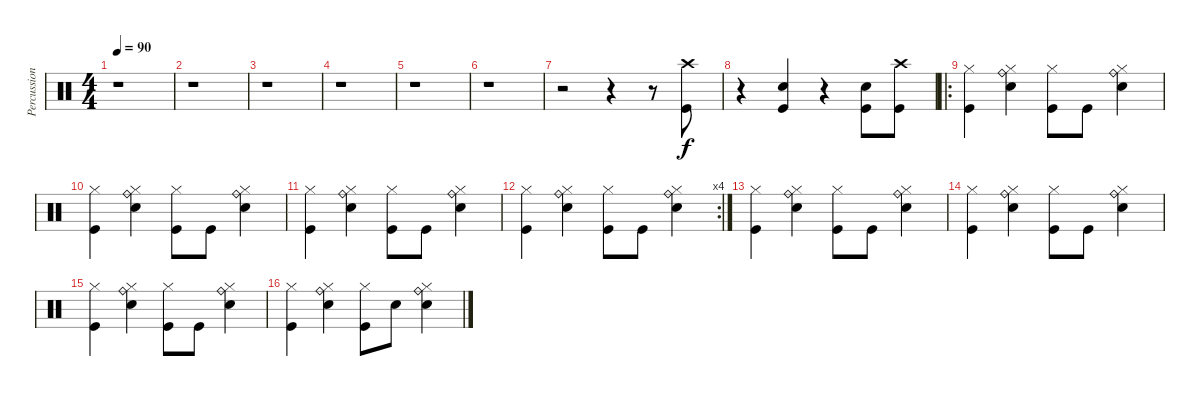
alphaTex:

\track ("Percussion" "Percussion") {instrument percussion}
\staff {score}
\articulation defaults
\ts (4 4)
\tempo 90
\clef neutral
\ks c
r.1{dy f} |
r.1 |
r.1 |
r.1 |
r.1 |
r.1 |
r.2 r.4 r.8 ("Crash high (hit)" "Kick (hit)").8 |
r.4 ("Snare (hit) 2" "Kick (hit)").4 r.4 ("Snare (hit) 2" "Kick (hit)").8 ("Crash high (hit)" "Kick (hit)").8 |
\ro
("Hi-Hat (closed)" "Kick (hit)").4 ("Hi-Hat (closed)" "Ride (bell)" "Snare (hit) 2").4 ("Hi-Hat (closed)" "Kick (hit)").8 "Kick (hit)".8 ("Hi-Hat (closed)" "Ride (bell)" "Snare (hit) 2").4 |
("Hi-Hat (closed)" "Kick (hit)").4 ("Hi-Hat (closed)" "Ride (bell)" "Snare (hit) 2").4 ("Hi-Hat (closed)" "Kick (hit)").8 "Kick (hit)".8 ("Hi-Hat (closed)" "Ride (bell)" "Snare (hit) 2").4 |
("Hi-Hat (closed)" "Kick (hit)").4 ("Hi-Hat (closed)" "Ride (bell)" "Snare (hit) 2").4 ("Hi-Hat (closed)" "Kick (hit)").8 "Kick (hit)".8 ("Hi-Hat (closed)" "Ride (bell)" "Snare (hit) 2").4 |
\rc 4
("Hi-Hat (closed)" "Kick (hit)").4 ("Hi-Hat (closed)" "Ride (bell)" "Snare (hit) 2").4 ("Hi-Hat (closed)" "Kick (hit)").8 "Kick (hit)".8 ("Hi-Hat (closed)" "Ride (bell)" "Snare (hit) 2").4 |
("Hi-Hat (closed)" "Kick (hit)").4 ("Hi-Hat (closed)" "Ride (bell)" "Snare (hit) 2").4 ("Hi-Hat (closed)" "Kick (hit)").8 "Kick (hit)".8 ("Hi-Hat (closed)" "Ride (bell)" "Snare (hit) 2").4 |
("Hi-Hat (closed)" "Kick (hit)").4 ("Hi-Hat (closed)" "Ride (bell)" "Snare (hit) 2").4 ("Hi-Hat (closed)" "Kick (hit)").8 "Kick (hit)".8 ("Hi-Hat (closed)" "Ride (bell)" "Snare (hit) 2").4 |
("Hi-Hat (closed)" "Kick (hit)").4 ("Hi-Hat (closed)" "Ride (bell)" "Snare (hit) 2").4 ("Hi-Hat (closed)" "Kick (hit)").8 "Kick (hit)".8 ("Hi-Hat (closed)" "Ride (bell)" "Snare (hit) 2").4 |
("Hi-Hat (closed)" "Kick (hit)").4 ("Hi-Hat (closed)" "Ride (bell)" "Snare (hit) 2").4 ("Hi-Hat (closed)" "Kick (hit)").8 "Snare (hit) 2".8 ("Hi-Hat (closed)" "Ride (bell)" "Snare (hit) 2").4
